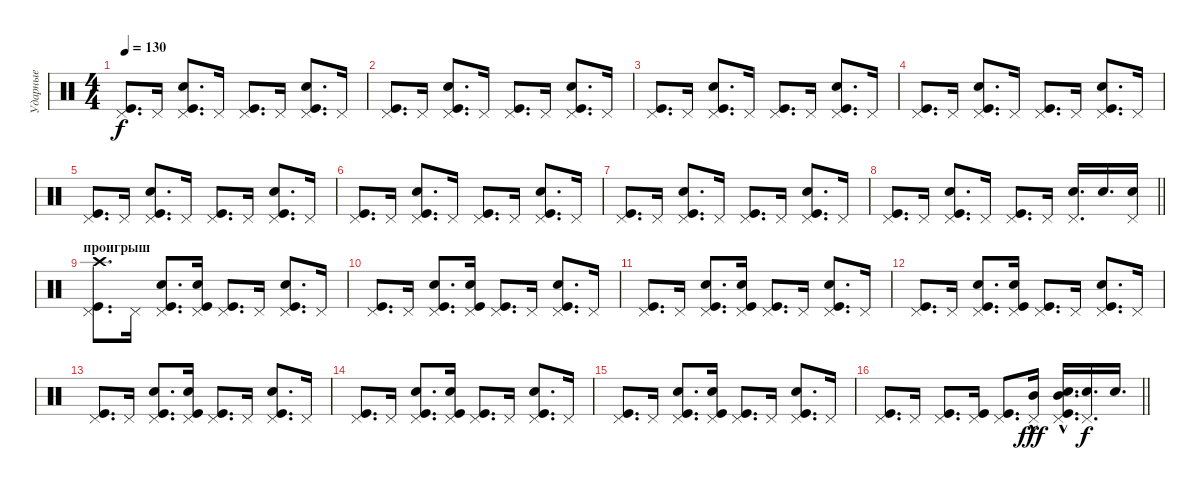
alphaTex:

\track ("Ударные" "Ударные") {instrument percussion}
\staff {score}
\articulation defaults
\ts (4 4)
\tempo 130
\clef neutral
\ks c
("Pedal Hi-Hat (hit)" "Kick (hit)").8{d dy f} "Pedal Hi-Hat (hit)".16 ("Pedal Hi-Hat (hit)" "Kick (hit)" "Snare (hit) 2").8{d} "Pedal Hi-Hat (hit)".16 ("Pedal Hi-Hat (hit)" "Kick (hit)").8{d} "Pedal Hi-Hat (hit)".16 ("Pedal Hi-Hat (hit)" "Kick (hit)" "Snare (hit) 2").8{d} "Pedal Hi-Hat (hit)".16 |
("Pedal Hi-Hat (hit)" "Kick (hit)").8{d} "Pedal Hi-Hat (hit)".16 ("Pedal Hi-Hat (hit)" "Kick (hit)" "Snare (hit) 2").8{d} "Pedal Hi-Hat (hit)".16 ("Pedal Hi-Hat (hit)" "Kick (hit)").8{d} "Pedal Hi-Hat (hit)".16 ("Pedal Hi-Hat (hit)" "Kick (hit)" "Snare (hit) 2").8{d} "Pedal Hi-Hat (hit)".16 |
("Pedal Hi-Hat (hit)" "Kick (hit)").8{d} "Pedal Hi-Hat (hit)".16 ("Pedal Hi-Hat (hit)" "Kick (hit)" "Snare (hit) 2").8{d} "Pedal Hi-Hat (hit)".16 ("Pedal Hi-Hat (hit)" "Kick (hit)").8{d} "Pedal Hi-Hat (hit)".16 ("Pedal Hi-Hat (hit)" "Kick (hit)" "Snare (hit) 2").8{d} "Pedal Hi-Hat (hit)".16 |
("Pedal Hi-Hat (hit)" "Kick (hit)").8{d} "Pedal Hi-Hat (hit)".16 ("Pedal Hi-Hat (hit)" "Kick (hit)" "Snare (hit) 2").8{d} "Pedal Hi-Hat (hit)".16 ("Pedal Hi-Hat (hit)" "Kick (hit)").8{d} "Pedal Hi-Hat (hit)".16 ("Pedal Hi-Hat (hit)" "Kick (hit)" "Snare (hit) 2").8{d} "Pedal Hi-Hat (hit)".16 |
("Pedal Hi-Hat (hit)" "Kick (hit)").8{d} "Pedal Hi-Hat (hit)".16 ("Pedal Hi-Hat (hit)" "Kick (hit)" "Snare (hit) 2").8{d} "Pedal Hi-Hat (hit)".16 ("Pedal Hi-Hat (hit)" "Kick (hit)").8{d} "Pedal Hi-Hat (hit)".16 ("Pedal Hi-Hat (hit)" "Kick (hit)" "Snare (hit) 2").8{d} "Pedal Hi-Hat (hit)".16 |
("Pedal Hi-Hat (hit)" "Kick (hit)").8{d} "Pedal Hi-Hat (hit)".16 ("Pedal Hi-Hat (hit)" "Kick (hit)" "Snare (hit) 2").8{d} "Pedal Hi-Hat (hit)".16 ("Pedal Hi-Hat (hit)" "Kick (hit)").8{d} "Pedal Hi-Hat (hit)".16 ("Pedal Hi-Hat (hit)" "Kick (hit)" "Snare (hit) 2").8{d} "Pedal Hi-Hat (hit)".16 |
("Pedal Hi-Hat (hit)" "Kick (hit)").8{d} "Pedal Hi-Hat (hit)".16 ("Pedal Hi-Hat (hit)" "Kick (hit)" "Snare (hit) 2").8{d} "Pedal Hi-Hat (hit)".16 ("Pedal Hi-Hat (hit)" "Kick (hit)").8{d} "Pedal Hi-Hat (hit)".16 ("Pedal Hi-Hat (hit)" "Kick (hit)" "Snare (hit) 2").8{d} "Pedal Hi-Hat (hit)".16 |
\barLineRight lightlight
("Pedal Hi-Hat (hit)" "Kick (hit)").8{d} "Pedal Hi-Hat (hit)".16 ("Pedal Hi-Hat (hit)" "Kick (hit)" "Snare (hit) 2").8{d} "Pedal Hi-Hat (hit)".16 ("Pedal Hi-Hat (hit)" "Kick (hit)").8{d} "Pedal Hi-Hat (hit)".16 ("Pedal Hi-Hat (hit)" "Snare (hit) 2").16{d} "Snare (hit) 2".16{d} ("Snare (hit) 2" "Pedal Hi-Hat (hit)").16 |
\section ("" "проигрыш")
("Pedal Hi-Hat (hit)" "Kick (hit)" "Crash high (hit)").8{d} "Pedal Hi-Hat (hit)".16 ("Pedal Hi-Hat (hit)" "Kick (hit)" "Snare (hit) 2").8{d} ("Pedal Hi-Hat (hit)" "Snare (hit) 2" "Kick (hit)").16 ("Pedal Hi-Hat (hit)" "Kick (hit)").8{d} "Pedal Hi-Hat (hit)".16 ("Pedal Hi-Hat (hit)" "Kick (hit)" "Snare (hit) 2").8{d} "Pedal Hi-Hat (hit)".16 |
("Pedal Hi-Hat (hit)" "Kick (hit)").8{d} "Pedal Hi-Hat (hit)".16 ("Pedal Hi-Hat (hit)" "Kick (hit)" "Snare (hit) 2").8{d} ("Pedal Hi-Hat (hit)" "Snare (hit) 2" "Kick (hit)").16 ("Pedal Hi-Hat (hit)" "Kick (hit)").8{d} "Pedal Hi-Hat (hit)".16 ("Pedal Hi-Hat (hit)" "Kick (hit)" "Snare (hit) 2").8{d} "Pedal Hi-Hat (hit)".16 |
("Pedal Hi-Hat (hit)" "Kick (hit)").8{d} "Pedal Hi-Hat (hit)".16 ("Pedal Hi-Hat (hit)" "Kick (hit)" "Snare (hit) 2").8{d} ("Pedal Hi-Hat (hit)" "Snare (hit) 2" "Kick (hit)").16 ("Pedal Hi-Hat (hit)" "Kick (hit)").8{d} "Pedal Hi-Hat (hit)".16 ("Pedal Hi-Hat (hit)" "Kick (hit)" "Snare (hit) 2").8{d} "Pedal Hi-Hat (hit)".16 |
("Pedal Hi-Hat (hit)" "Kick (hit)").8{d} "Pedal Hi-Hat (hit)".16 ("Pedal Hi-Hat (hit)" "Kick (hit)" "Snare (hit) 2").8{d} ("Pedal Hi-Hat (hit)" "Snare (hit) 2" "Kick (hit)").16 ("Pedal Hi-Hat (hit)" "Kick (hit)").8{d} "Pedal Hi-Hat (hit)".16 ("Pedal Hi-Hat (hit)" "Kick (hit)" "Snare (hit) 2").8{d} "Pedal Hi-Hat (hit)".16 |
("Pedal Hi-Hat (hit)" "Kick (hit)").8{d} "Pedal Hi-Hat (hit)".16 ("Pedal Hi-Hat (hit)" "Kick (hit)" "Snare (hit) 2").8{d} ("Pedal Hi-Hat (hit)" "Snare (hit) 2" "Kick (hit)").16 ("Pedal Hi-Hat (hit)" "Kick (hit)").8{d} "Pedal Hi-Hat (hit)".16 ("Pedal Hi-Hat (hit)" "Kick (hit)" "Snare (hit) 2").8{d} "Pedal Hi-Hat (hit)".16 |
("Pedal Hi-Hat (hit)" "Kick (hit)").8{d} "Pedal Hi-Hat (hit)".16 ("Pedal Hi-Hat (hit)" "Kick (hit)" "Snare (hit) 2").8{d} ("Pedal Hi-Hat (hit)" "Snare (hit) 2" "Kick (hit)").16 ("Pedal Hi-Hat (hit)" "Kick (hit)").8{d} "Pedal Hi-Hat (hit)".16 ("Pedal Hi-Hat (hit)" "Kick (hit)" "Snare (hit) 2").8{d} "Pedal Hi-Hat (hit)".16 |
("Pedal Hi-Hat (hit)" "Kick (hit)").8{d} "Pedal Hi-Hat (hit)".16 ("Pedal Hi-Hat (hit)" "Kick (hit)" "Snare (hit) 2").8{d} ("Pedal Hi-Hat (hit)" "Snare (hit) 2" "Kick (hit)").16 ("Pedal Hi-Hat (hit)" "Kick (hit)").8{d} "Pedal Hi-Hat (hit)".16 ("Pedal Hi-Hat (hit)" "Kick (hit)" "Snare (hit) 2").8{d} "Pedal Hi-Hat (hit)".16 |
\barLineRight lightlight
("Pedal Hi-Hat (hit)" "Kick (hit)").8{d} "Pedal Hi-Hat (hit)".16 ("Pedal Hi-Hat (hit)" "Kick (hit)").8{d} ("Pedal Hi-Hat (hit)" "Kick (hit)").16 ("Pedal Hi-Hat (hit)" "Kick (hit)").8{d} ("Pedal Hi-Hat (hit)" "Mid Tom (hit)"{hac}).16{dy fff} ("Pedal Hi-Hat (hit)" "Kick (hit)" "Mid Tom (hit)"{hac} "Snare (hit) 2").16{d} ("Pedal Hi-Hat (hit)" "Snare (hit) 2").16{d dy f} "Snare (hit) 2".16{d}
